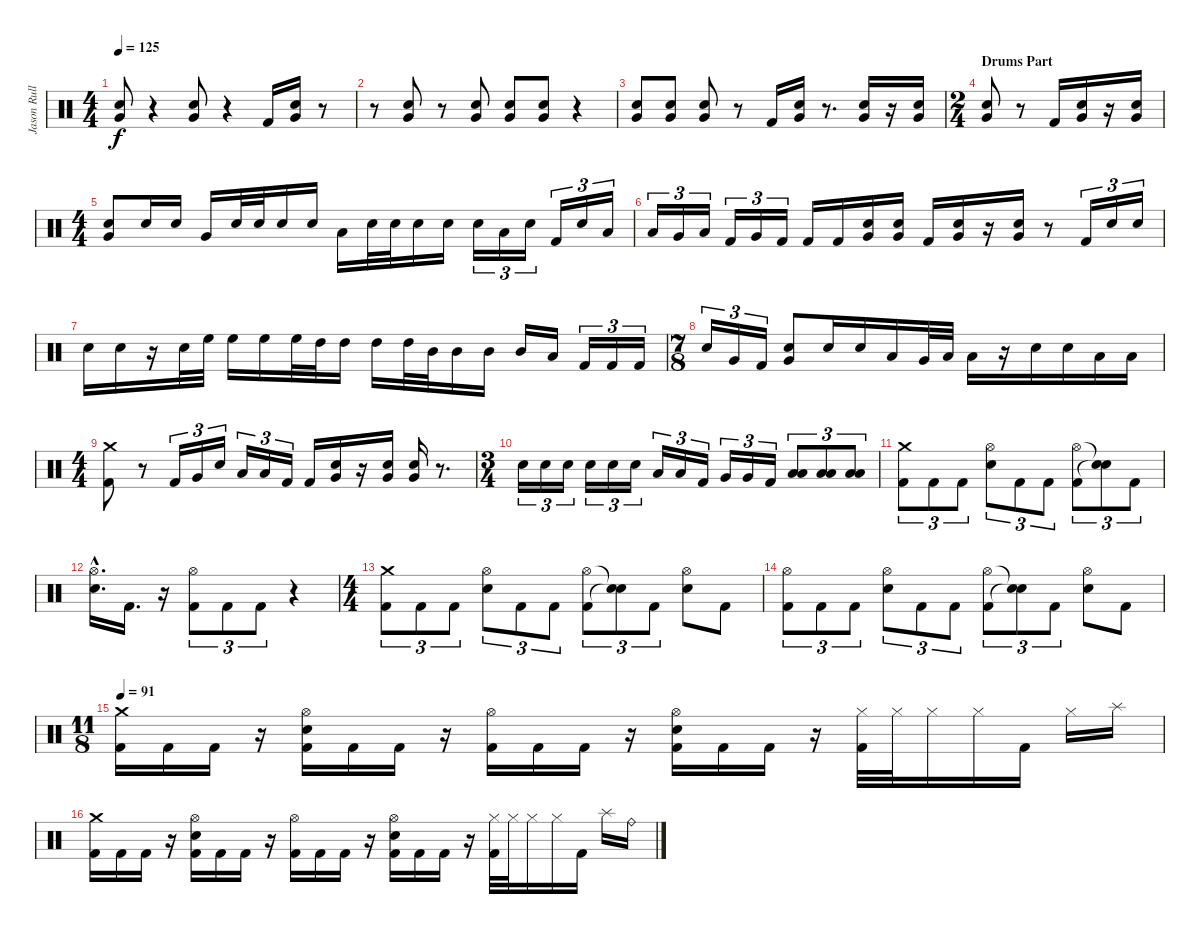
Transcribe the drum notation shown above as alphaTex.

\track ("Jason Rullo" "Jason Rull") {instrument percussion}
\staff {score}
\articulation defaults
\ts (4 4)
\tempo 125
\clef neutral
\ks c
("Very Low Tom (hit)" "Electric Snare (hit)").8{dy f} r.4 ("Electric Snare (hit)" "Very Low Tom (hit)").8 r.4 "Kick (hit) 2".16 ("Very Low Tom (hit)" "Electric Snare (hit)").16 r.8 |
r.8 ("Very Low Tom (hit)" "Electric Snare (hit)").8 r.8 ("Electric Snare (hit)" "Very Low Tom (hit)").8 ("Electric Snare (hit)" "Very Low Tom (hit)").8 ("Electric Snare (hit)" "Very Low Tom (hit)").8 r.4 |
("Electric Snare (hit)" "Very Low Tom (hit)").8 ("Electric Snare (hit)" "Very Low Tom (hit)").8 ("Electric Snare (hit)" "Very Low Tom (hit)").8 r.8 "Kick (hit) 2".16 ("Very Low Tom (hit)" "Electric Snare (hit)").16 r.8{d} ("Very Low Tom (hit)" "Electric Snare (hit)").16 r.16 ("Very Low Tom (hit)" "Electric Snare (hit)").16 |
\ts (2 4)
\section ("" "Drums Part")
("Electric Snare (hit)" "Very Low Tom (hit)").8 r.8 "Kick (hit) 2".16 ("Very Low Tom (hit)" "Electric Snare (hit)").16 r.16 ("Very Low Tom (hit)" "Electric Snare (hit)").16 |
\ts (4 4)
("Electric Snare (hit)" "Very Low Tom (hit)").8 "Electric Snare (hit)".16 "Electric Snare (hit)".16 "Very Low Tom (hit)".16 "Electric Snare (hit)".32 "Electric Snare (hit)".32 "Electric Snare (hit)".16 "Electric Snare (hit)".16 "Low Tom (hit)".16 "Electric Snare (hit)".32 "Electric Snare (hit)".32 "Electric Snare (hit)".16 "Electric Snare (hit)".16 "Electric Snare (hit)".16{tu (3 2)} "Low Floor Tom (hit)".16{tu (3 2)} "Electric Snare (hit)".16{tu (3 2)} "Kick (hit) 2".16{tu (3 2)} "Electric Snare (hit)".16{tu (3 2)} "Low Floor Tom (hit)".16{tu (3 2)} |
"Low Tom (hit)".16{tu (3 2)} "Very Low Tom (hit)".16{tu (3 2)} "Low Floor Tom (hit)".16{tu (3 2)} "Kick (hit) 2".16{tu (3 2)} "Very Low Tom (hit)".16{tu (3 2)} "Kick (hit) 2".16{tu (3 2)} "Kick (hit) 2".16 "Kick (hit) 2".16 ("Very Low Tom (hit)" "Electric Snare (hit)").16 ("Very Low Tom (hit)" "Electric Snare (hit)").16 "Kick (hit) 2".16 ("Very Low Tom (hit)" "Electric Snare (hit)").16 r.16 ("Very Low Tom (hit)" "Electric Snare (hit)").16 r.8 "Kick (hit) 2".16{tu (3 2)} "Electric Snare (hit)".16{tu (3 2)} "Electric Snare (hit)".16{tu (3 2)} |
"Electric Snare (hit)".16 "Electric Snare (hit)".16 r.16 "Electric Snare (hit)".32 "High Floor Tom (hit)".32 "High Floor Tom (hit)".16 "High Floor Tom (hit)".16 "High Floor Tom (hit)".32 "High Tom (hit)".32 "High Tom (hit)".16 "High Tom (hit)".16 "High Tom (hit)".32 "Mid Tom (hit)".32 "Mid Tom (hit)".16 "Mid Tom (hit)".16 "Mid Tom (hit)".16 "Low Floor Tom (hit)".16 "Kick (hit) 2".16{tu (3 2)} "Kick (hit) 2".16{tu (3 2)} "Kick (hit) 2".16{tu (3 2)} |
\ts (7 8)
"Electric Snare (hit)".16{tu (3 2)} "Very Low Tom (hit)".16{tu (3 2)} "Kick (hit) 2".16{tu (3 2)} ("Very Low Tom (hit)" "Electric Snare (hit)").8 "Electric Snare (hit)".16 "Electric Snare (hit)".16 "Low Tom (hit)".16 "Very Low Tom (hit)".32 "Low Floor Tom (hit)".32 "Low Floor Tom (hit)".16 r.16 "Electric Snare (hit)".16 "Electric Snare (hit)".16 "Low Tom (hit)".16 "Low Floor Tom (hit)".16 |
\ts (4 4)
("Crash medium (hit)" "Kick (hit) 2").8 r.8 "Kick (hit) 2".16{tu (3 2)} "Very Low Tom (hit)".16{tu (3 2)} "Electric Snare (hit)".16{tu (3 2)} "Low Tom (hit)".16{tu (3 2)} "Low Floor Tom (hit)".16{tu (3 2)} "Kick (hit) 2".16{tu (3 2)} "Kick (hit) 2".16 ("Very Low Tom (hit)" "Electric Snare (hit)").16 r.16 ("Very Low Tom (hit)" "Electric Snare (hit)").16 ("Very Low Tom (hit)" "Electric Snare (hit)").16 r.8{d} |
\ts (3 4)
"Electric Snare (hit)".16{tu (3 2)} "Electric Snare (hit)".16{tu (3 2)} "Electric Snare (hit)".16{tu (3 2)} "Electric Snare (hit)".16{tu (3 2)} "Electric Snare (hit)".16{tu (3 2)} "Electric Snare (hit)".16{tu (3 2)} "Low Tom (hit)".16{tu (3 2)} "Low Tom (hit)".16{tu (3 2)} "Kick (hit) 2".16{tu (3 2)} "Very Low Tom (hit)".16{tu (3 2)} "Very Low Tom (hit)".16{tu (3 2)} "Kick (hit) 2".16{tu (3 2)} ("Low Tom (hit)" "Low Floor Tom (hit)").8{tu (3 2)} ("Low Tom (hit)" "Low Floor Tom (hit)").8{tu (3 2)} ("Low Tom (hit)" "Low Floor Tom (hit)").8{tu (3 2)} |
("Crash medium (hit)" "Kick (hit) 2").8{tu (3 2)} "Kick (hit) 2".8{tu (3 2)} "Kick (hit) 2".8{tu (3 2)} ("Hi-Hat (open)" "Electric Snare (hit)").8{tu (3 2)} "Kick (hit) 2".8{tu (3 2)} "Kick (hit) 2".8{tu (3 2)} ("Hi-Hat (open)" "Kick (hit) 2").8{tu (3 2)} ("Snare (hit)"{t} "Snare (hit)"{t}).8{tu (3 2)} "Kick (hit) 2".8{tu (3 2)} |
("Hi-Hat (open)" "Electric Snare (hit)"{hac}).16{d} "Kick (hit) 2".16{d} r.16 ("Hi-Hat (open)" "Kick (hit) 2").8{tu (3 2)} "Kick (hit) 2".8{tu (3 2)} "Kick (hit) 2".8{tu (3 2)} r.4 |
\ts (4 4)
("Crash medium (hit)" "Kick (hit) 2").8{tu (3 2)} "Kick (hit) 2".8{tu (3 2)} "Kick (hit) 2".8{tu (3 2)} ("Hi-Hat (open)" "Electric Snare (hit)").8{tu (3 2)} "Kick (hit) 2".8{tu (3 2)} "Kick (hit) 2".8{tu (3 2)} ("Hi-Hat (open)" "Kick (hit) 2").8{tu (3 2)} ("Snare (hit)"{t} "Snare (hit)"{t}).8{tu (3 2)} "Kick (hit) 2".8{tu (3 2)} ("Hi-Hat (open)" "Electric Snare (hit)").8 "Kick (hit) 2".8 |
("Hi-Hat (open)" "Kick (hit) 2").8{tu (3 2)} "Kick (hit) 2".8{tu (3 2)} "Kick (hit) 2".8{tu (3 2)} ("Hi-Hat (open)" "Electric Snare (hit)").8{tu (3 2)} "Kick (hit) 2".8{tu (3 2)} "Kick (hit) 2".8{tu (3 2)} ("Hi-Hat (open)" "Kick (hit) 2").8{tu (3 2)} ("Snare (hit)"{t} "Snare (hit)"{t}).8{tu (3 2)} "Kick (hit) 2".8{tu (3 2)} ("Hi-Hat (open)" "Electric Snare (hit)").8 "Kick (hit) 2".8 |
\ts (11 8)
\tempo 91
("Kick (hit) 2" "Crash medium (hit)").16 "Kick (hit) 2".16 "Kick (hit) 2".16 r.16 ("Kick (hit) 2" "Electric Snare (hit)" "Hi-Hat (open)").16 "Kick (hit) 2".16 "Kick (hit) 2".16 r.16 ("Kick (hit) 2" "Hi-Hat (open)").16 "Kick (hit) 2".16 "Kick (hit) 2".16 r.16 ("Electric Snare (hit)" "Kick (hit) 2" "Hi-Hat (open)").16 "Kick (hit) 2".16 "Kick (hit) 2".16 r.16 ("Hi-Hat (closed)" "Kick (hit) 2").32 "Hi-Hat (closed)".32 "Hi-Hat (closed)".16 "Hi-Hat (closed)".16 "Kick (hit) 2".16 "Hi-Hat (closed)".16 "Splash (hit)".16 |
("Kick (hit) 2" "Crash medium (hit)").16 "Kick (hit) 2".16 "Kick (hit) 2".16 r.16 ("Kick (hit) 2" "Electric Snare (hit)" "Hi-Hat (open)").16 "Kick (hit) 2".16 "Kick (hit) 2".16 r.16 ("Kick (hit) 2" "Hi-Hat (open)").16 "Kick (hit) 2".16 "Kick (hit) 2".16 r.16 ("Electric Snare (hit)" "Kick (hit) 2" "Hi-Hat (open)").16 "Kick (hit) 2".16 "Kick (hit) 2".16 r.16 ("Hi-Hat (closed)" "Kick (hit) 2").32 "Hi-Hat (closed)".32 "Hi-Hat (closed)".16 "Hi-Hat (closed)".16 "Kick (hit) 2".16 "Splash (hit)".16 "Ride (bell)".16
